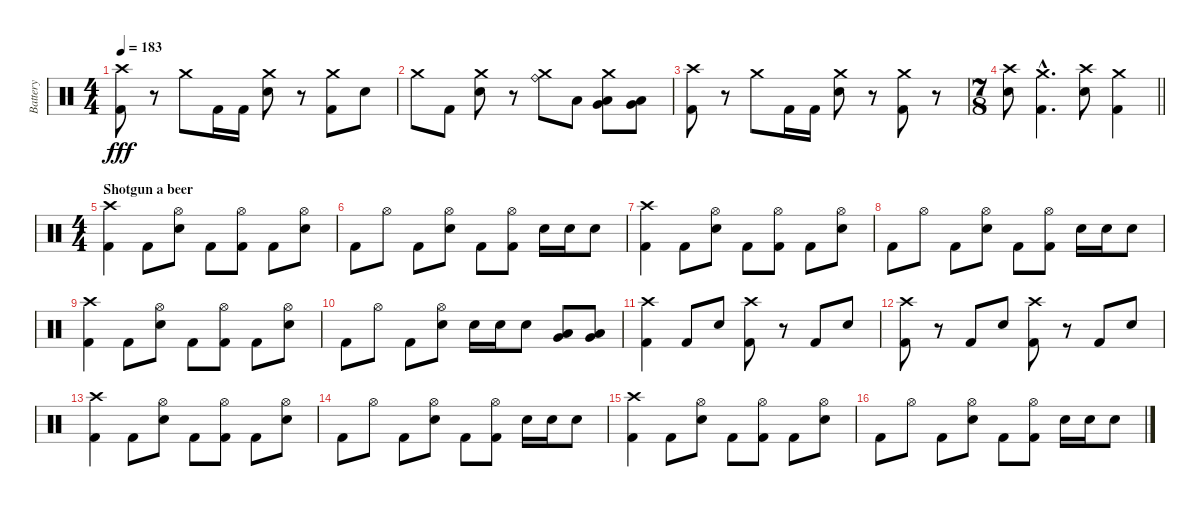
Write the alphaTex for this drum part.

\track ("Battery" "Battery") {instrument percussion}
\staff {score}
\articulation defaults
\ts (4 4)
\tempo 183
\clef neutral
\ks c
("Crash high (hit)" "Kick (hit) 2").8{dy fff} r.8 "Crash medium (hit)".8 "Kick (hit) 2".16 "Kick (hit) 2".16 ("Crash medium (hit)" "Electric Snare (hit)").8 r.8 ("Crash medium (hit)" "Kick (hit) 2").8 "Electric Snare (hit)".8 |
"Crash medium (hit)".8 "Kick (hit) 2".8 ("Crash medium (hit)" "Electric Snare (hit)").8 r.8 ("Crash medium (hit)" "Ride (bell)").8 "Low Tom (hit)".8 ("Crash medium (hit)" "Very Low Tom (hit)" "Low Tom (hit)").8 ("Very Low Tom (hit)" "Low Floor Tom (hit)").8 |
("Crash high (hit)" "Kick (hit) 2").8 r.8 "Crash medium (hit)".8 "Kick (hit) 2".16 "Kick (hit) 2".16 ("Crash medium (hit)" "Electric Snare (hit)").8 r.8 ("Crash medium (hit)" "Kick (hit) 2").8 r.8 |
\ts (7 8)
\barLineRight lightlight
("Crash high (hit)" "Electric Snare (hit)").8 ("Crash medium (hit)"{hac} "Kick (hit) 2"{hac}).4{d} ("Crash high (hit)" "Electric Snare (hit)").8 ("Crash medium (hit)" "Kick (hit) 2").4 |
\ts (4 4)
\section ("" "Shotgun a beer")
("Crash high (hit)" "Kick (hit) 2").4 "Kick (hit) 2".8 ("Hi-Hat (open)" "Electric Snare (hit)").8 "Kick (hit) 2".8 ("Hi-Hat (open)" "Kick (hit) 2").8 "Kick (hit) 2".8 ("Hi-Hat (open)" "Electric Snare (hit)").8 |
"Kick (hit) 2".8 "Hi-Hat (open)".8 "Kick (hit) 2".8 ("Hi-Hat (open)" "Electric Snare (hit)").8 "Kick (hit) 2".8 ("Hi-Hat (open)" "Kick (hit) 2").8 "Electric Snare (hit)".16 "Electric Snare (hit)".16 "Electric Snare (hit)".8 |
("Crash high (hit)" "Kick (hit) 2").4 "Kick (hit) 2".8 ("Hi-Hat (open)" "Electric Snare (hit)").8 "Kick (hit) 2".8 ("Hi-Hat (open)" "Kick (hit) 2").8 "Kick (hit) 2".8 ("Hi-Hat (open)" "Electric Snare (hit)").8 |
"Kick (hit) 2".8 "Hi-Hat (open)".8 "Kick (hit) 2".8 ("Hi-Hat (open)" "Electric Snare (hit)").8 "Kick (hit) 2".8 ("Hi-Hat (open)" "Kick (hit) 2").8 "Electric Snare (hit)".16 "Electric Snare (hit)".16 "Electric Snare (hit)".8 |
("Crash high (hit)" "Kick (hit) 2").4 "Kick (hit) 2".8 ("Hi-Hat (open)" "Electric Snare (hit)").8 "Kick (hit) 2".8 ("Hi-Hat (open)" "Kick (hit) 2").8 "Kick (hit) 2".8 ("Hi-Hat (open)" "Electric Snare (hit)").8 |
"Kick (hit) 2".8 "Hi-Hat (open)".8 "Kick (hit) 2".8 ("Hi-Hat (open)" "Electric Snare (hit)").8 "Electric Snare (hit)".16 "Electric Snare (hit)".16 "Electric Snare (hit)".8 ("Low Tom (hit)" "Very Low Tom (hit)").8 ("Very Low Tom (hit)" "Low Floor Tom (hit)").8 |
("Crash high (hit)" "Kick (hit) 2").4 "Kick (hit) 2".8 "Electric Snare (hit)".8 ("Crash high (hit)" "Kick (hit) 2").8 r.8 "Kick (hit) 2".8 "Electric Snare (hit)".8 |
("Crash high (hit)" "Kick (hit) 2").8 r.8 "Kick (hit) 2".8 "Electric Snare (hit)".8 ("Crash high (hit)" "Kick (hit) 2").8 r.8 "Kick (hit) 2".8 "Electric Snare (hit)".8 |
("Crash high (hit)" "Kick (hit) 2").4 "Kick (hit) 2".8 ("Hi-Hat (open)" "Electric Snare (hit)").8 "Kick (hit) 2".8 ("Hi-Hat (open)" "Kick (hit) 2").8 "Kick (hit) 2".8 ("Hi-Hat (open)" "Electric Snare (hit)").8 |
"Kick (hit) 2".8 "Hi-Hat (open)".8 "Kick (hit) 2".8 ("Hi-Hat (open)" "Electric Snare (hit)").8 "Kick (hit) 2".8 ("Hi-Hat (open)" "Kick (hit) 2").8 "Electric Snare (hit)".16 "Electric Snare (hit)".16 "Electric Snare (hit)".8 |
("Crash high (hit)" "Kick (hit) 2").4 "Kick (hit) 2".8 ("Hi-Hat (open)" "Electric Snare (hit)").8 "Kick (hit) 2".8 ("Hi-Hat (open)" "Kick (hit) 2").8 "Kick (hit) 2".8 ("Hi-Hat (open)" "Electric Snare (hit)").8 |
"Kick (hit) 2".8 "Hi-Hat (open)".8 "Kick (hit) 2".8 ("Hi-Hat (open)" "Electric Snare (hit)").8 "Kick (hit) 2".8 ("Hi-Hat (open)" "Kick (hit) 2").8 "Electric Snare (hit)".16 "Electric Snare (hit)".16 "Electric Snare (hit)".8
